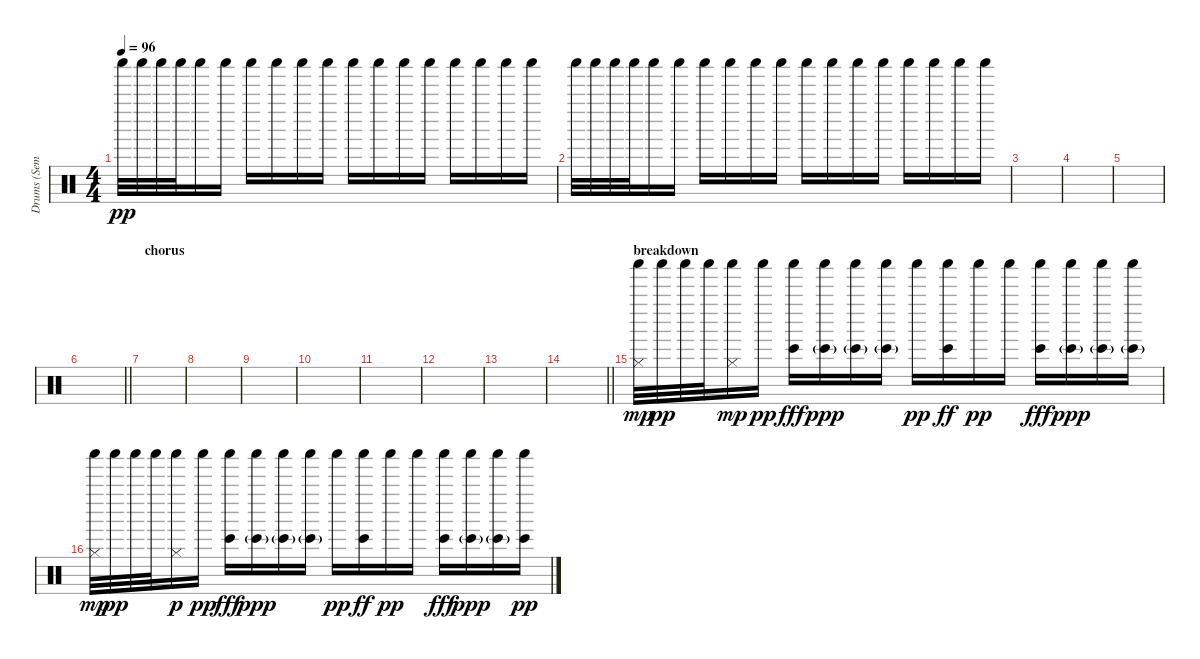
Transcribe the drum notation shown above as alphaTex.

\track ("Drums (Semple)" "Drums (Sem") {instrument percussion}
\staff {score}
\articulation defaults
\ts (4 4)
\tempo 96
\clef neutral
\ks c "Shaker (hit)".32{dy pp} "Shaker (hit)".32 "Shaker (hit)".32 "Shaker (hit)".32 "Shaker (hit)".16 "Shaker (hit)".16 "Shaker (hit)".16 "Shaker (hit)".16 "Shaker (hit)".16 "Shaker (hit)".16 "Shaker (hit)".16 "Shaker (hit)".16 "Shaker (hit)".16 "Shaker (hit)".16 "Shaker (hit)".16 "Shaker (hit)".16 "Shaker (hit)".16 "Shaker (hit)".16
|
"Shaker (hit)".32 "Shaker (hit)".32 "Shaker (hit)".32 "Shaker (hit)".32 "Shaker (hit)".16 "Shaker (hit)".16 "Shaker (hit)".16 "Shaker (hit)".16 "Shaker (hit)".16 "Shaker (hit)".16 "Shaker (hit)".16 "Shaker (hit)".16 "Shaker (hit)".16 "Shaker (hit)".16 "Shaker (hit)".16 "Shaker (hit)".16 "Shaker (hit)".16 "Shaker (hit)".16 |
|
|
|
\barLineRight lightlight
|
\section ("" "chorus")
|
|
|
|
|
|
|
\barLineRight lightlight
|
\section ("" "breakdown")
("Shaker (hit)" "Hi-Hat (closed)").32{dy mp} "Shaker (hit)".32{dy pp} "Shaker (hit)".32 "Shaker (hit)".32 ("Shaker (hit)" "Hi-Hat (closed)").16{dy mp} "Shaker (hit)".16{dy pp} ("Shaker (hit)" "Bongo High (hit)").16{dy fff} ("Shaker (hit)" "Bongo High (hit)"{g}).16{dy ppp} ("Shaker (hit)" "Bongo High (hit)"{g}).16 ("Shaker (hit)" "Bongo High (hit)"{g}).16 "Shaker (hit)".16{dy pp} ("Shaker (hit)" "Bongo High (hit)").16{dy ff} "Shaker (hit)".16{dy pp} "Shaker (hit)".16 ("Shaker (hit)" "Bongo High (hit)").16{dy fff} ("Shaker (hit)" "Bongo High (hit)"{g}).16{dy ppp} ("Shaker (hit)" "Bongo High (hit)"{g}).16 ("Shaker (hit)" "Bongo High (hit)"{g}).16 |
("Shaker (hit)" "Hi-Hat (closed)").32{dy mp} "Shaker (hit)".32{dy pp} "Shaker (hit)".32 "Shaker (hit)".32 ("Shaker (hit)" "Hi-Hat (closed)").16{dy p} "Shaker (hit)".16{dy pp} ("Shaker (hit)" "Bongo High (hit)").16{dy fff} ("Shaker (hit)" "Bongo High (hit)"{g}).16{dy ppp} ("Shaker (hit)" "Bongo High (hit)"{g}).16 ("Shaker (hit)" "Bongo High (hit)"{g}).16 "Shaker (hit)".16{dy pp} ("Shaker (hit)" "Bongo High (hit)").16{dy ff} "Shaker (hit)".16{dy pp} "Shaker (hit)".16 ("Shaker (hit)" "Bongo High (hit)").16{dy fff} ("Shaker (hit)" "Bongo High (hit)"{g}).16{dy ppp} ("Shaker (hit)" "Bongo High (hit)"{g}).16 ("Shaker (hit)" "Bongo High (hit)").16{dy pp}
